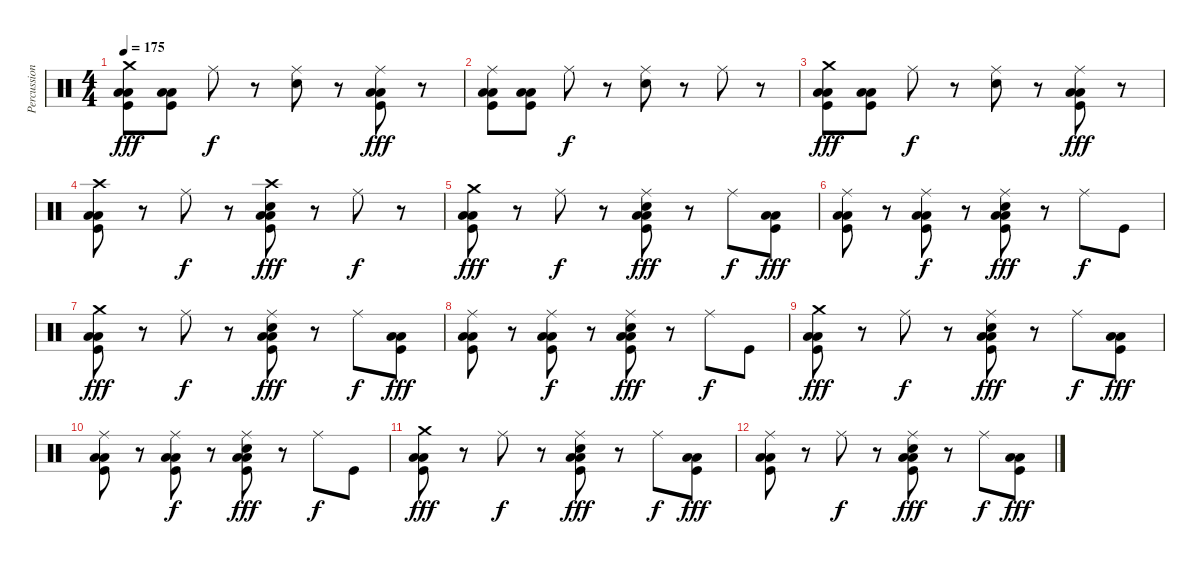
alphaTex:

\track ("Percussions" "Percussion") {instrument percussion}
\staff {score}
\articulation defaults
\ts (4 4)
\tempo 175
\clef neutral
\ks c
("Crash medium (hit)" "Low Tom (hit)" "Low Floor Tom (hit)" "Kick (hit)").8{dy fff} ("Low Tom (hit)" "Low Floor Tom (hit)" "Kick (hit)").8 "Ride (middle)".8{dy f} r.8 ("Ride (middle)" "Snare (hit) 2").8 r.8 ("Ride (middle)" "Low Tom (hit)" "Low Floor Tom (hit)" "Kick (hit)").8{dy fff} r.8 |
("Ride (middle)" "Low Tom (hit)" "Low Floor Tom (hit)" "Kick (hit)").8 ("Low Tom (hit)" "Low Floor Tom (hit)" "Kick (hit)").8 "Ride (middle)".8{dy f} r.8 ("Ride (middle)" "Snare (hit) 2").8 r.8 "Ride (middle)".8 r.8 |
("Crash medium (hit)" "Low Tom (hit)" "Low Floor Tom (hit)" "Kick (hit)").8{dy fff} ("Low Tom (hit)" "Low Floor Tom (hit)" "Kick (hit)").8 "Ride (middle)".8{dy f} r.8 ("Ride (middle)" "Snare (hit) 2").8 r.8 ("Ride (middle)" "Low Tom (hit)" "Low Floor Tom (hit)" "Kick (hit)").8{dy fff} r.8 |
("Crash high (hit)" "Low Tom (hit)" "Low Floor Tom (hit)" "Kick (hit)").8 r.8 "Ride (middle)".8{dy f} r.8 ("Crash high (hit)" "Snare (hit) 2" "Low Tom (hit)" "Low Floor Tom (hit)" "Kick (hit)").8{dy fff} r.8 "Ride (middle)".8{dy f} r.8 |
("Crash medium (hit)" "Low Tom (hit)" "Low Floor Tom (hit)" "Kick (hit)").8{dy fff} r.8 "Ride (middle)".8{dy f} r.8 ("Ride (middle)" "Snare (hit) 2" "Low Tom (hit)" "Low Floor Tom (hit)" "Kick (hit)").8{dy fff} r.8 "Ride (middle)".8{dy f} ("Low Tom (hit)" "Low Floor Tom (hit)" "Kick (hit)").8{dy fff} |
("Ride (middle)" "Low Tom (hit)" "Low Floor Tom (hit)" "Kick (hit)").8 r.8 ("Ride (middle)" "Low Tom (hit)" "Low Floor Tom (hit)" "Kick (hit)").8{dy f} r.8 ("Ride (middle)" "Snare (hit) 2" "Low Tom (hit)" "Low Floor Tom (hit)" "Kick (hit)").8{dy fff} r.8 "Ride (middle)".8{dy f} "Kick (hit)".8 |
("Crash medium (hit)" "Low Tom (hit)" "Low Floor Tom (hit)" "Kick (hit)").8{dy fff} r.8 "Ride (middle)".8{dy f} r.8 ("Ride (middle)" "Snare (hit) 2" "Low Tom (hit)" "Low Floor Tom (hit)" "Kick (hit)").8{dy fff} r.8 "Ride (middle)".8{dy f} ("Low Tom (hit)" "Low Floor Tom (hit)" "Kick (hit)").8{dy fff} |
("Ride (middle)" "Low Tom (hit)" "Low Floor Tom (hit)" "Kick (hit)").8 r.8 ("Ride (middle)" "Low Tom (hit)" "Low Floor Tom (hit)" "Kick (hit)").8{dy f} r.8 ("Ride (middle)" "Snare (hit) 2" "Low Tom (hit)" "Low Floor Tom (hit)" "Kick (hit)").8{dy fff} r.8 "Ride (middle)".8{dy f} "Kick (hit)".8 |
("Crash medium (hit)" "Low Tom (hit)" "Low Floor Tom (hit)" "Kick (hit)").8{dy fff} r.8 "Ride (middle)".8{dy f} r.8 ("Ride (middle)" "Snare (hit) 2" "Low Tom (hit)" "Low Floor Tom (hit)" "Kick (hit)").8{dy fff} r.8 "Ride (middle)".8{dy f} ("Low Tom (hit)" "Low Floor Tom (hit)" "Kick (hit)").8{dy fff} |
("Ride (middle)" "Low Tom (hit)" "Low Floor Tom (hit)" "Kick (hit)").8 r.8 ("Ride (middle)" "Low Tom (hit)" "Low Floor Tom (hit)" "Kick (hit)").8{dy f} r.8 ("Ride (middle)" "Snare (hit) 2" "Low Tom (hit)" "Low Floor Tom (hit)" "Kick (hit)").8{dy fff} r.8 "Ride (middle)".8{dy f} "Kick (hit)".8 |
("Crash medium (hit)" "Low Tom (hit)" "Low Floor Tom (hit)" "Kick (hit)").8{dy fff} r.8 "Ride (middle)".8{dy f} r.8 ("Ride (middle)" "Snare (hit) 2" "Low Tom (hit)" "Low Floor Tom (hit)" "Kick (hit)").8{dy fff} r.8 "Ride (middle)".8{dy f} ("Low Tom (hit)" "Low Floor Tom (hit)" "Kick (hit)").8{dy fff} |
("Ride (middle)" "Low Tom (hit)" "Low Floor Tom (hit)" "Kick (hit)").8 r.8 "Ride (middle)".8{dy f} r.8 ("Ride (middle)" "Snare (hit) 2" "Low Tom (hit)" "Low Floor Tom (hit)" "Kick (hit)").8{dy fff} r.8 "Ride (middle)".8{dy f} ("Low Tom (hit)" "Low Floor Tom (hit)" "Kick (hit)").8{dy fff}
